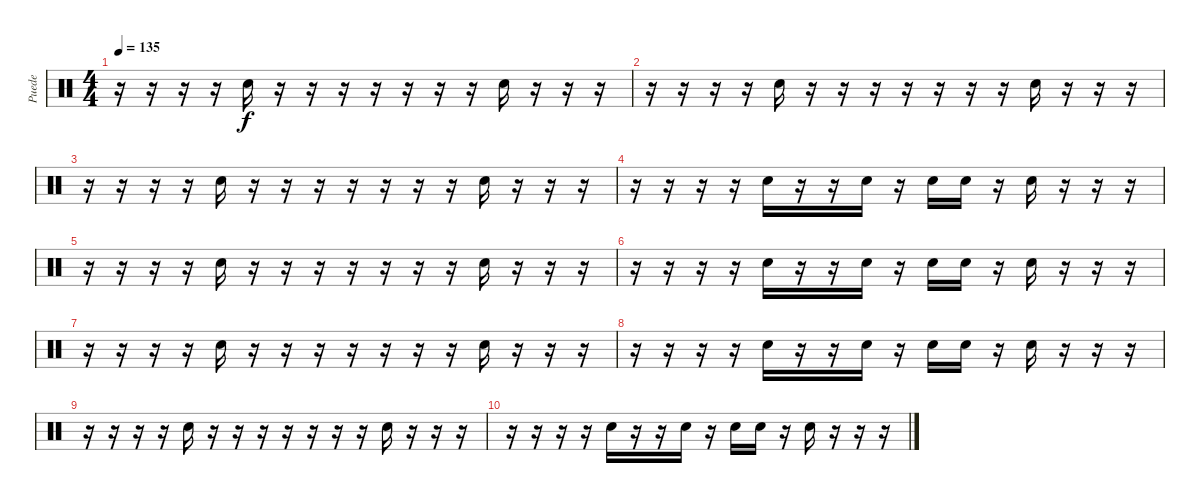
\track ("Puede" "Puede") {instrument percussion}
\staff {score}
\articulation defaults
\ts (4 4)
\tempo 135
\clef neutral
\ks c
r.16{dy f} r.16 r.16 r.16 "Hand Clap (hit)".16 r.16 r.16 r.16 r.16 r.16 r.16 r.16 "Hand Clap (hit)".16 r.16 r.16 r.16 |
r.16 r.16 r.16 r.16 "Hand Clap (hit)".16 r.16 r.16 r.16 r.16 r.16 r.16 r.16 "Hand Clap (hit)".16 r.16 r.16 r.16 |
r.16 r.16 r.16 r.16 "Hand Clap (hit)".16 r.16 r.16 r.16 r.16 r.16 r.16 r.16 "Hand Clap (hit)".16 r.16 r.16 r.16 |
r.16 r.16 r.16 r.16 "Hand Clap (hit)".16 r.16 r.16 "Hand Clap (hit)".16 r.16 "Hand Clap (hit)".16 "Hand Clap (hit)".16 r.16 "Hand Clap (hit)".16 r.16 r.16 r.16 |
r.16 r.16 r.16 r.16 "Hand Clap (hit)".16 r.16 r.16 r.16 r.16 r.16 r.16 r.16 "Hand Clap (hit)".16 r.16 r.16 r.16 |
r.16 r.16 r.16 r.16 "Hand Clap (hit)".16 r.16 r.16 "Hand Clap (hit)".16 r.16 "Hand Clap (hit)".16 "Hand Clap (hit)".16 r.16 "Hand Clap (hit)".16 r.16 r.16 r.16 |
r.16 r.16 r.16 r.16 "Hand Clap (hit)".16 r.16 r.16 r.16 r.16 r.16 r.16 r.16 "Hand Clap (hit)".16 r.16 r.16 r.16 |
r.16 r.16 r.16 r.16 "Hand Clap (hit)".16 r.16 r.16 "Hand Clap (hit)".16 r.16 "Hand Clap (hit)".16 "Hand Clap (hit)".16 r.16 "Hand Clap (hit)".16 r.16 r.16 r.16 |
r.16 r.16 r.16 r.16 "Hand Clap (hit)".16 r.16 r.16 r.16 r.16 r.16 r.16 r.16 "Hand Clap (hit)".16 r.16 r.16 r.16 |
r.16 r.16 r.16 r.16 "Hand Clap (hit)".16 r.16 r.16 "Hand Clap (hit)".16 r.16 "Hand Clap (hit)".16 "Hand Clap (hit)".16 r.16 "Hand Clap (hit)".16 r.16 r.16 r.16
